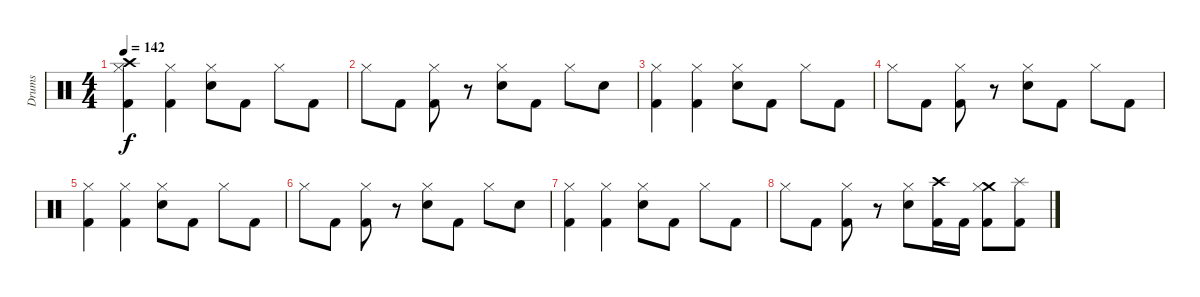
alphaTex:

\track ("Drums" "Drums") {instrument percussion}
\staff {score}
\articulation defaults
\ts (4 4)
\tempo 142
\clef neutral
\ks c
("Crash high (hit)" "Hi-Hat (closed)" "Kick (hit) 2").4{dy f} ("Hi-Hat (closed)" "Kick (hit) 2").4 ("Hi-Hat (closed)" "Electric Snare (hit)").8 "Kick (hit) 2".8 "Hi-Hat (closed)".8 "Kick (hit) 2".8 |
"Hi-Hat (closed)".8 "Kick (hit) 2".8 ("Hi-Hat (closed)" "Kick (hit) 2").8 r.8 ("Hi-Hat (closed)" "Electric Snare (hit)").8 "Kick (hit) 2".8 "Hi-Hat (closed)".8 "Electric Snare (hit)".8 |
("Hi-Hat (closed)" "Kick (hit) 2").4 ("Hi-Hat (closed)" "Kick (hit) 2").4 ("Hi-Hat (closed)" "Electric Snare (hit)").8 "Kick (hit) 2".8 "Hi-Hat (closed)".8 "Kick (hit) 2".8 |
"Hi-Hat (closed)".8 "Kick (hit) 2".8 ("Hi-Hat (closed)" "Kick (hit) 2").8 r.8 ("Hi-Hat (closed)" "Electric Snare (hit)").8 "Kick (hit) 2".8 "Hi-Hat (closed)".8 "Kick (hit) 2".8 |
("Hi-Hat (closed)" "Kick (hit) 2").4 ("Hi-Hat (closed)" "Kick (hit) 2").4 ("Hi-Hat (closed)" "Electric Snare (hit)").8 "Kick (hit) 2".8 "Hi-Hat (closed)".8 "Kick (hit) 2".8 |
"Hi-Hat (closed)".8 "Kick (hit) 2".8 ("Hi-Hat (closed)" "Kick (hit) 2").8 r.8 ("Hi-Hat (closed)" "Electric Snare (hit)").8 "Kick (hit) 2".8 "Hi-Hat (closed)".8 "Electric Snare (hit)".8 |
("Hi-Hat (closed)" "Kick (hit) 2").4 ("Hi-Hat (closed)" "Kick (hit) 2").4 ("Hi-Hat (closed)" "Electric Snare (hit)").8 "Kick (hit) 2".8 "Hi-Hat (closed)".8 "Kick (hit) 2".8 |
"Hi-Hat (closed)".8 "Kick (hit) 2".8 ("Hi-Hat (closed)" "Kick (hit) 2").8 r.8 ("Hi-Hat (closed)" "Electric Snare (hit)").8 ("Crash high (hit)" "Kick (hit) 2").16 "Kick (hit) 2".16 ("Crash medium (hit)" "Hi-Hat (closed)" "Kick (hit) 2").8 ("Splash (hit)" "Kick (hit) 2").8
